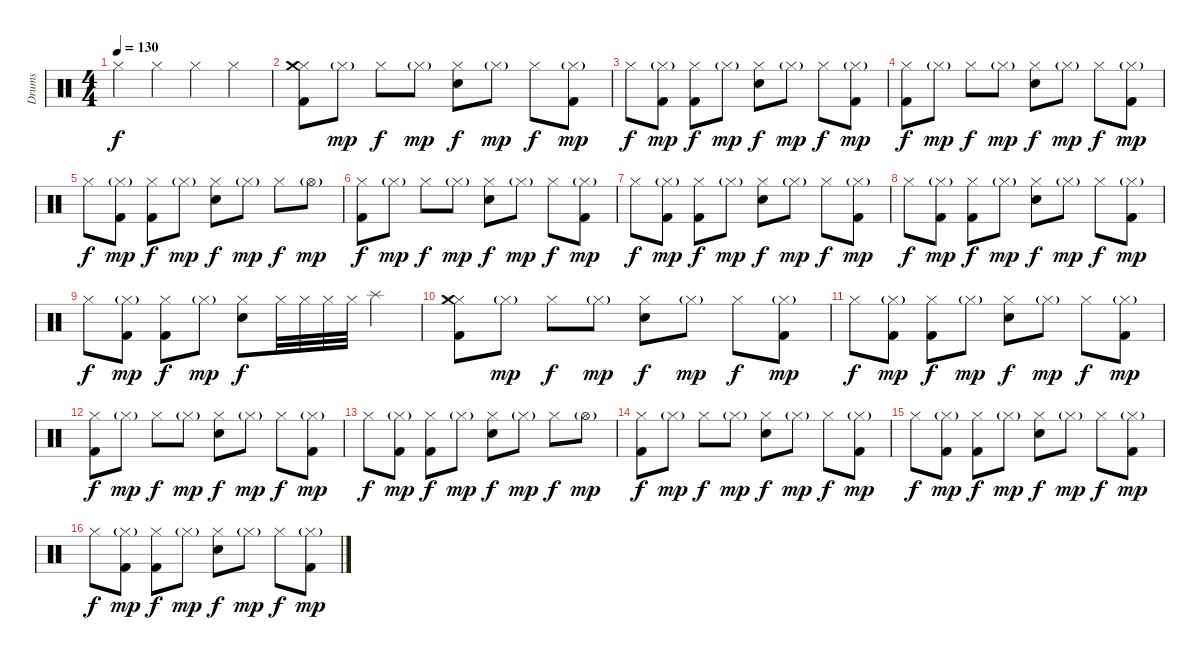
\track ("Drums" "Drums") {instrument percussion}
\staff {score}
\articulation defaults
\ts (4 4)
\tempo 130
\clef neutral
\ks c "Hi-Hat (closed)".4{dy f} "Hi-Hat (closed)".4 "Hi-Hat (closed)".4 "Hi-Hat (closed)".4
|
("Hi-Hat (closed)" "Crash medium (hit)" "Kick (hit) 2").8 "Hi-Hat (closed)"{g}.8{dy mp} "Hi-Hat (closed)".8{dy f} "Hi-Hat (closed)"{g}.8{dy mp} ("Hi-Hat (closed)" "Electric Snare (hit)").8{dy f} "Hi-Hat (closed)"{g}.8{dy mp} "Hi-Hat (closed)".8{dy f} ("Hi-Hat (closed)"{g} "Kick (hit) 2").8{dy mp} |
"Hi-Hat (closed)".8{dy f} ("Hi-Hat (closed)"{g} "Kick (hit) 2").8{dy mp} ("Hi-Hat (closed)" "Kick (hit) 2").8{dy f} "Hi-Hat (closed)"{g}.8{dy mp} ("Hi-Hat (closed)" "Electric Snare (hit)").8{dy f} "Hi-Hat (closed)"{g}.8{dy mp} "Hi-Hat (closed)".8{dy f} ("Hi-Hat (closed)"{g} "Kick (hit) 2").8{dy mp} |
("Hi-Hat (closed)" "Kick (hit) 2").8{dy f} "Hi-Hat (closed)"{g}.8{dy mp} "Hi-Hat (closed)".8{dy f} "Hi-Hat (closed)"{g}.8{dy mp} ("Hi-Hat (closed)" "Electric Snare (hit)").8{dy f} "Hi-Hat (closed)"{g}.8{dy mp} "Hi-Hat (closed)".8{dy f} ("Hi-Hat (closed)"{g} "Kick (hit) 2").8{dy mp} |
"Hi-Hat (closed)".8{dy f} ("Hi-Hat (closed)"{g} "Kick (hit) 2").8{dy mp} ("Hi-Hat (closed)" "Kick (hit) 2").8{dy f} "Hi-Hat (closed)"{g}.8{dy mp} ("Hi-Hat (closed)" "Electric Snare (hit)").8{dy f} "Hi-Hat (closed)"{g}.8{dy mp} "Hi-Hat (closed)".8{dy f} "Hi-Hat (open)"{g}.8{dy mp} |
("Hi-Hat (closed)" "Kick (hit) 2").8{dy f} "Hi-Hat (closed)"{g}.8{dy mp} "Hi-Hat (closed)".8{dy f} "Hi-Hat (closed)"{g}.8{dy mp} ("Hi-Hat (closed)" "Electric Snare (hit)").8{dy f} "Hi-Hat (closed)"{g}.8{dy mp} "Hi-Hat (closed)".8{dy f} ("Hi-Hat (closed)"{g} "Kick (hit) 2").8{dy mp} |
"Hi-Hat (closed)".8{dy f} ("Hi-Hat (closed)"{g} "Kick (hit) 2").8{dy mp} ("Hi-Hat (closed)" "Kick (hit) 2").8{dy f} "Hi-Hat (closed)"{g}.8{dy mp} ("Hi-Hat (closed)" "Electric Snare (hit)").8{dy f} "Hi-Hat (closed)"{g}.8{dy mp} "Hi-Hat (closed)".8{dy f} ("Hi-Hat (closed)"{g} "Kick (hit) 2").8{dy mp} |
"Hi-Hat (closed)".8{dy f} ("Hi-Hat (closed)"{g} "Kick (hit) 2").8{dy mp} ("Hi-Hat (closed)" "Kick (hit) 2").8{dy f} "Hi-Hat (closed)"{g}.8{dy mp} ("Hi-Hat (closed)" "Electric Snare (hit)").8{dy f} "Hi-Hat (closed)"{g}.8{dy mp} "Hi-Hat (closed)".8{dy f} ("Hi-Hat (closed)"{g} "Kick (hit) 2").8{dy mp} |
"Hi-Hat (closed)".8{dy f} ("Hi-Hat (closed)"{g} "Kick (hit) 2").8{dy mp} ("Hi-Hat (closed)" "Kick (hit) 2").8{dy f} "Hi-Hat (closed)"{g}.8{dy mp} ("Hi-Hat (closed)" "Electric Snare (hit)").8{dy f} "Hi-Hat (closed)".32 "Hi-Hat (closed)".32 "Hi-Hat (closed)".32 "Hi-Hat (closed)".32 "Splash (hit)".4 |
("Hi-Hat (closed)" "Crash medium (hit)" "Kick (hit) 2").8 "Hi-Hat (closed)"{g}.8{dy mp} "Hi-Hat (closed)".8{dy f} "Hi-Hat (closed)"{g}.8{dy mp} ("Hi-Hat (closed)" "Electric Snare (hit)").8{dy f} "Hi-Hat (closed)"{g}.8{dy mp} "Hi-Hat (closed)".8{dy f} ("Hi-Hat (closed)"{g} "Kick (hit) 2").8{dy mp} |
"Hi-Hat (closed)".8{dy f} ("Hi-Hat (closed)"{g} "Kick (hit) 2").8{dy mp} ("Hi-Hat (closed)" "Kick (hit) 2").8{dy f} "Hi-Hat (closed)"{g}.8{dy mp} ("Hi-Hat (closed)" "Electric Snare (hit)").8{dy f} "Hi-Hat (closed)"{g}.8{dy mp} "Hi-Hat (closed)".8{dy f} ("Hi-Hat (closed)"{g} "Kick (hit) 2").8{dy mp} |
("Hi-Hat (closed)" "Kick (hit) 2").8{dy f} "Hi-Hat (closed)"{g}.8{dy mp} "Hi-Hat (closed)".8{dy f} "Hi-Hat (closed)"{g}.8{dy mp} ("Hi-Hat (closed)" "Electric Snare (hit)").8{dy f} "Hi-Hat (closed)"{g}.8{dy mp} "Hi-Hat (closed)".8{dy f} ("Hi-Hat (closed)"{g} "Kick (hit) 2").8{dy mp} |
"Hi-Hat (closed)".8{dy f} ("Hi-Hat (closed)"{g} "Kick (hit) 2").8{dy mp} ("Hi-Hat (closed)" "Kick (hit) 2").8{dy f} "Hi-Hat (closed)"{g}.8{dy mp} ("Hi-Hat (closed)" "Electric Snare (hit)").8{dy f} "Hi-Hat (closed)"{g}.8{dy mp} "Hi-Hat (closed)".8{dy f} "Hi-Hat (open)"{g}.8{dy mp} |
("Hi-Hat (closed)" "Kick (hit) 2").8{dy f} "Hi-Hat (closed)"{g}.8{dy mp} "Hi-Hat (closed)".8{dy f} "Hi-Hat (closed)"{g}.8{dy mp} ("Hi-Hat (closed)" "Electric Snare (hit)").8{dy f} "Hi-Hat (closed)"{g}.8{dy mp} "Hi-Hat (closed)".8{dy f} ("Hi-Hat (closed)"{g} "Kick (hit) 2").8{dy mp} |
"Hi-Hat (closed)".8{dy f} ("Hi-Hat (closed)"{g} "Kick (hit) 2").8{dy mp} ("Hi-Hat (closed)" "Kick (hit) 2").8{dy f} "Hi-Hat (closed)"{g}.8{dy mp} ("Hi-Hat (closed)" "Electric Snare (hit)").8{dy f} "Hi-Hat (closed)"{g}.8{dy mp} "Hi-Hat (closed)".8{dy f} ("Hi-Hat (closed)"{g} "Kick (hit) 2").8{dy mp} |
"Hi-Hat (closed)".8{dy f} ("Hi-Hat (closed)"{g} "Kick (hit) 2").8{dy mp} ("Hi-Hat (closed)" "Kick (hit) 2").8{dy f} "Hi-Hat (closed)"{g}.8{dy mp} ("Hi-Hat (closed)" "Electric Snare (hit)").8{dy f} "Hi-Hat (closed)"{g}.8{dy mp} "Hi-Hat (closed)".8{dy f} ("Hi-Hat (closed)"{g} "Kick (hit) 2").8{dy mp}
